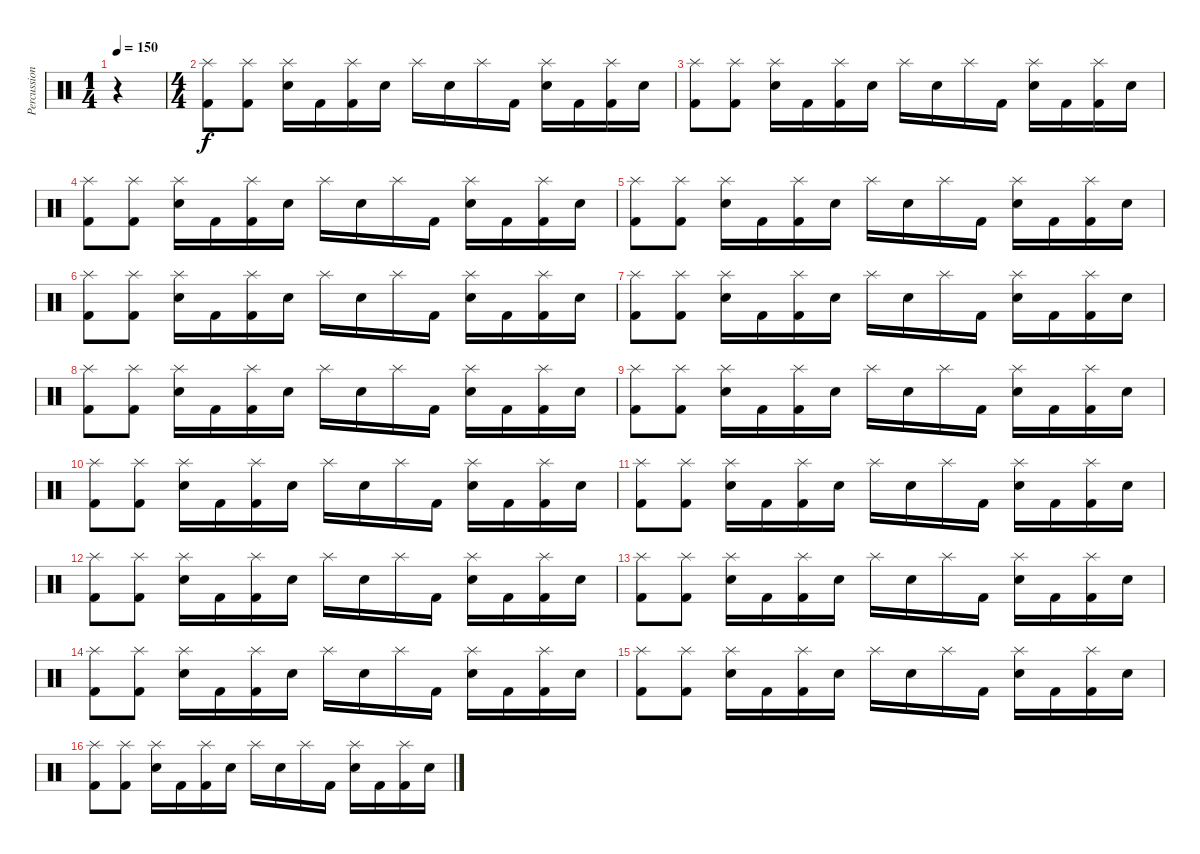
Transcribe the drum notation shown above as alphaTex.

\track ("Percussions" "Percussion") {instrument percussion}
\staff {score}
\articulation defaults
\ts (1 4)
\tempo 150
\clef neutral
\ks c
r.4{dy f} |
\ts (4 4)
("Splash (hit)" "Kick (hit) 2").8 ("Splash (hit)" "Kick (hit) 2").8 ("Splash (hit)" "Electric Snare (hit)").16 "Kick (hit) 2".16 ("Splash (hit)" "Kick (hit) 2").16 "Electric Snare (hit)".16 "Splash (hit)".16 "Electric Snare (hit)".16 "Splash (hit)".16 "Kick (hit) 2".16 ("Splash (hit)" "Electric Snare (hit)").16 "Kick (hit) 2".16 ("Splash (hit)" "Kick (hit) 2").16 "Electric Snare (hit)".16 |
("Splash (hit)" "Kick (hit) 2").8 ("Splash (hit)" "Kick (hit) 2").8 ("Splash (hit)" "Electric Snare (hit)").16 "Kick (hit) 2".16 ("Splash (hit)" "Kick (hit) 2").16 "Electric Snare (hit)".16 "Splash (hit)".16 "Electric Snare (hit)".16 "Splash (hit)".16 "Kick (hit) 2".16 ("Splash (hit)" "Electric Snare (hit)").16 "Kick (hit) 2".16 ("Splash (hit)" "Kick (hit) 2").16 "Electric Snare (hit)".16 |
("Splash (hit)" "Kick (hit) 2").8 ("Splash (hit)" "Kick (hit) 2").8 ("Splash (hit)" "Electric Snare (hit)").16 "Kick (hit) 2".16 ("Splash (hit)" "Kick (hit) 2").16 "Electric Snare (hit)".16 "Splash (hit)".16 "Electric Snare (hit)".16 "Splash (hit)".16 "Kick (hit) 2".16 ("Splash (hit)" "Electric Snare (hit)").16 "Kick (hit) 2".16 ("Splash (hit)" "Kick (hit) 2").16 "Electric Snare (hit)".16 |
("Splash (hit)" "Kick (hit) 2").8 ("Splash (hit)" "Kick (hit) 2").8 ("Splash (hit)" "Electric Snare (hit)").16 "Kick (hit) 2".16 ("Splash (hit)" "Kick (hit) 2").16 "Electric Snare (hit)".16 "Splash (hit)".16 "Electric Snare (hit)".16 "Splash (hit)".16 "Kick (hit) 2".16 ("Splash (hit)" "Electric Snare (hit)").16 "Kick (hit) 2".16 ("Splash (hit)" "Kick (hit) 2").16 "Electric Snare (hit)".16 |
("Splash (hit)" "Kick (hit) 2").8 ("Splash (hit)" "Kick (hit) 2").8 ("Splash (hit)" "Electric Snare (hit)").16 "Kick (hit) 2".16 ("Splash (hit)" "Kick (hit) 2").16 "Electric Snare (hit)".16 "Splash (hit)".16 "Electric Snare (hit)".16 "Splash (hit)".16 "Kick (hit) 2".16 ("Splash (hit)" "Electric Snare (hit)").16 "Kick (hit) 2".16 ("Splash (hit)" "Kick (hit) 2").16 "Electric Snare (hit)".16 |
("Splash (hit)" "Kick (hit) 2").8 ("Splash (hit)" "Kick (hit) 2").8 ("Splash (hit)" "Electric Snare (hit)").16 "Kick (hit) 2".16 ("Splash (hit)" "Kick (hit) 2").16 "Electric Snare (hit)".16 "Splash (hit)".16 "Electric Snare (hit)".16 "Splash (hit)".16 "Kick (hit) 2".16 ("Splash (hit)" "Electric Snare (hit)").16 "Kick (hit) 2".16 ("Splash (hit)" "Kick (hit) 2").16 "Electric Snare (hit)".16 |
("Splash (hit)" "Kick (hit) 2").8 ("Splash (hit)" "Kick (hit) 2").8 ("Splash (hit)" "Electric Snare (hit)").16 "Kick (hit) 2".16 ("Splash (hit)" "Kick (hit) 2").16 "Electric Snare (hit)".16 "Splash (hit)".16 "Electric Snare (hit)".16 "Splash (hit)".16 "Kick (hit) 2".16 ("Splash (hit)" "Electric Snare (hit)").16 "Kick (hit) 2".16 ("Splash (hit)" "Kick (hit) 2").16 "Electric Snare (hit)".16 |
("Splash (hit)" "Kick (hit) 2").8 ("Splash (hit)" "Kick (hit) 2").8 ("Splash (hit)" "Electric Snare (hit)").16 "Kick (hit) 2".16 ("Splash (hit)" "Kick (hit) 2").16 "Electric Snare (hit)".16 "Splash (hit)".16 "Electric Snare (hit)".16 "Splash (hit)".16 "Kick (hit) 2".16 ("Splash (hit)" "Electric Snare (hit)").16 "Kick (hit) 2".16 ("Splash (hit)" "Kick (hit) 2").16 "Electric Snare (hit)".16 |
("Splash (hit)" "Kick (hit) 2").8 ("Splash (hit)" "Kick (hit) 2").8 ("Splash (hit)" "Electric Snare (hit)").16 "Kick (hit) 2".16 ("Splash (hit)" "Kick (hit) 2").16 "Electric Snare (hit)".16 "Splash (hit)".16 "Electric Snare (hit)".16 "Splash (hit)".16 "Kick (hit) 2".16 ("Splash (hit)" "Electric Snare (hit)").16 "Kick (hit) 2".16 ("Splash (hit)" "Kick (hit) 2").16 "Electric Snare (hit)".16 |
("Splash (hit)" "Kick (hit) 2").8 ("Splash (hit)" "Kick (hit) 2").8 ("Splash (hit)" "Electric Snare (hit)").16 "Kick (hit) 2".16 ("Splash (hit)" "Kick (hit) 2").16 "Electric Snare (hit)".16 "Splash (hit)".16 "Electric Snare (hit)".16 "Splash (hit)".16 "Kick (hit) 2".16 ("Splash (hit)" "Electric Snare (hit)").16 "Kick (hit) 2".16 ("Splash (hit)" "Kick (hit) 2").16 "Electric Snare (hit)".16 |
("Splash (hit)" "Kick (hit) 2").8 ("Splash (hit)" "Kick (hit) 2").8 ("Splash (hit)" "Electric Snare (hit)").16 "Kick (hit) 2".16 ("Splash (hit)" "Kick (hit) 2").16 "Electric Snare (hit)".16 "Splash (hit)".16 "Electric Snare (hit)".16 "Splash (hit)".16 "Kick (hit) 2".16 ("Splash (hit)" "Electric Snare (hit)").16 "Kick (hit) 2".16 ("Splash (hit)" "Kick (hit) 2").16 "Electric Snare (hit)".16 |
("Splash (hit)" "Kick (hit) 2").8 ("Splash (hit)" "Kick (hit) 2").8 ("Splash (hit)" "Electric Snare (hit)").16 "Kick (hit) 2".16 ("Splash (hit)" "Kick (hit) 2").16 "Electric Snare (hit)".16 "Splash (hit)".16 "Electric Snare (hit)".16 "Splash (hit)".16 "Kick (hit) 2".16 ("Splash (hit)" "Electric Snare (hit)").16 "Kick (hit) 2".16 ("Splash (hit)" "Kick (hit) 2").16 "Electric Snare (hit)".16 |
("Splash (hit)" "Kick (hit) 2").8 ("Splash (hit)" "Kick (hit) 2").8 ("Splash (hit)" "Electric Snare (hit)").16 "Kick (hit) 2".16 ("Splash (hit)" "Kick (hit) 2").16 "Electric Snare (hit)".16 "Splash (hit)".16 "Electric Snare (hit)".16 "Splash (hit)".16 "Kick (hit) 2".16 ("Splash (hit)" "Electric Snare (hit)").16 "Kick (hit) 2".16 ("Splash (hit)" "Kick (hit) 2").16 "Electric Snare (hit)".16 |
("Splash (hit)" "Kick (hit) 2").8 ("Splash (hit)" "Kick (hit) 2").8 ("Splash (hit)" "Electric Snare (hit)").16 "Kick (hit) 2".16 ("Splash (hit)" "Kick (hit) 2").16 "Electric Snare (hit)".16 "Splash (hit)".16 "Electric Snare (hit)".16 "Splash (hit)".16 "Kick (hit) 2".16 ("Splash (hit)" "Electric Snare (hit)").16 "Kick (hit) 2".16 ("Splash (hit)" "Kick (hit) 2").16 "Electric Snare (hit)".16 |
("Splash (hit)" "Kick (hit) 2").8 ("Splash (hit)" "Kick (hit) 2").8 ("Splash (hit)" "Electric Snare (hit)").16 "Kick (hit) 2".16 ("Splash (hit)" "Kick (hit) 2").16 "Electric Snare (hit)".16 "Splash (hit)".16 "Electric Snare (hit)".16 "Splash (hit)".16 "Kick (hit) 2".16 ("Splash (hit)" "Electric Snare (hit)").16 "Kick (hit) 2".16 ("Splash (hit)" "Kick (hit) 2").16 "Electric Snare (hit)".16
